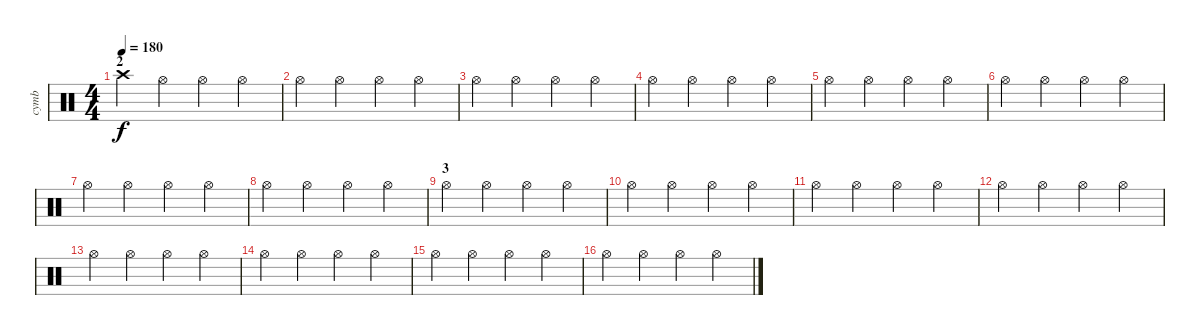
\track ("cymb" "cymb") {instrument percussion}
\staff {score}
\articulation defaults
\ts (4 4)
\section ("" "2")
\tempo 180
\clef neutral
\ks c "Crash high (hit)".4{dy f} "Hi-Hat (open)".4 "Hi-Hat (open)".4 "Hi-Hat (open)".4
|
"Hi-Hat (open)".4 "Hi-Hat (open)".4 "Hi-Hat (open)".4 "Hi-Hat (open)".4 |
"Hi-Hat (open)".4 "Hi-Hat (open)".4 "Hi-Hat (open)".4 "Hi-Hat (open)".4 |
"Hi-Hat (open)".4 "Hi-Hat (open)".4 "Hi-Hat (open)".4 "Hi-Hat (open)".4 |
"Hi-Hat (open)".4 "Hi-Hat (open)".4 "Hi-Hat (open)".4 "Hi-Hat (open)".4 |
"Hi-Hat (open)".4 "Hi-Hat (open)".4 "Hi-Hat (open)".4 "Hi-Hat (open)".4 |
"Hi-Hat (open)".4 "Hi-Hat (open)".4 "Hi-Hat (open)".4 "Hi-Hat (open)".4 |
"Hi-Hat (open)".4 "Hi-Hat (open)".4 "Hi-Hat (open)".4 "Hi-Hat (open)".4 |
\section ("" "3")
"Hi-Hat (open)".4 "Hi-Hat (open)".4 "Hi-Hat (open)".4 "Hi-Hat (open)".4 |
"Hi-Hat (open)".4 "Hi-Hat (open)".4 "Hi-Hat (open)".4 "Hi-Hat (open)".4 |
"Hi-Hat (open)".4 "Hi-Hat (open)".4 "Hi-Hat (open)".4 "Hi-Hat (open)".4 |
"Hi-Hat (open)".4 "Hi-Hat (open)".4 "Hi-Hat (open)".4 "Hi-Hat (open)".4 |
"Hi-Hat (open)".4 "Hi-Hat (open)".4 "Hi-Hat (open)".4 "Hi-Hat (open)".4 |
"Hi-Hat (open)".4 "Hi-Hat (open)".4 "Hi-Hat (open)".4 "Hi-Hat (open)".4 |
"Hi-Hat (open)".4 "Hi-Hat (open)".4 "Hi-Hat (open)".4 "Hi-Hat (open)".4 |
"Hi-Hat (open)".4 "Hi-Hat (open)".4 "Hi-Hat (open)".4 "Hi-Hat (open)".4
